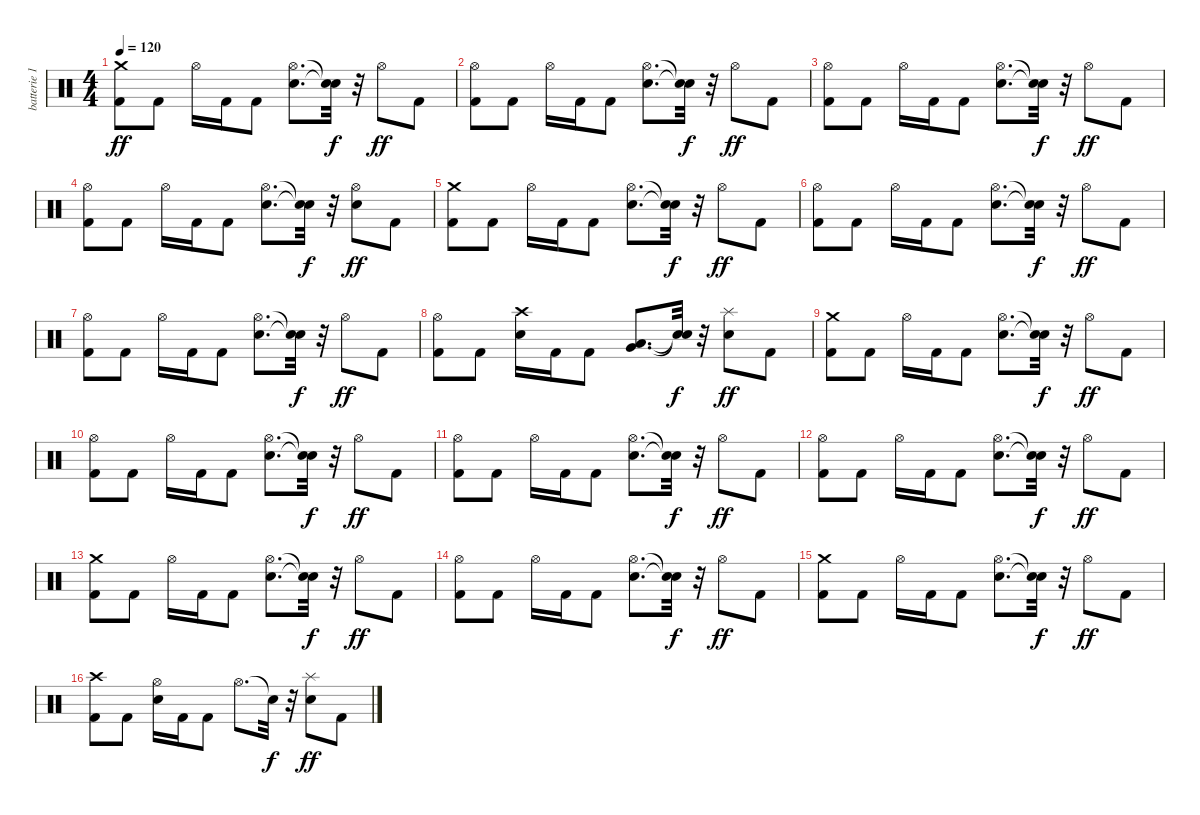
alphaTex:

\track ("batterie 1" "batterie 1") {instrument percussion}
\staff {score}
\articulation defaults
\ts (4 4)
\tempo 120
\clef neutral
\ks c
("Kick (hit) 2" "Crash medium (hit)").8{dy ff} "Kick (hit) 2".8 "Hi-Hat (open)".16 "Kick (hit) 2".16 "Kick (hit) 2".8 ("Electric Snare (hit)" "Hi-Hat (open)").8{d} ("Snare (hit)"{t} "Snare (hit)"{t}).32{dy f} r.32 "Hi-Hat (open)".8{dy ff} "Kick (hit) 2".8 |
("Kick (hit) 2" "Hi-Hat (open)").8 "Kick (hit) 2".8 "Hi-Hat (open)".16 "Kick (hit) 2".16 "Kick (hit) 2".8 ("Electric Snare (hit)" "Hi-Hat (open)").8{d} ("Snare (hit)"{t} "Snare (hit)"{t}).32{dy f} r.32 "Hi-Hat (open)".8{dy ff} "Kick (hit) 2".8 |
("Kick (hit) 2" "Hi-Hat (open)").8 "Kick (hit) 2".8 "Hi-Hat (open)".16 "Kick (hit) 2".16 "Kick (hit) 2".8 ("Electric Snare (hit)" "Hi-Hat (open)").8{d} ("Snare (hit)"{t} "Snare (hit)"{t}).32{dy f} r.32 "Hi-Hat (open)".8{dy ff} "Kick (hit) 2".8 |
("Kick (hit) 2" "Hi-Hat (open)").8 "Kick (hit) 2".8 "Hi-Hat (open)".16 "Kick (hit) 2".16 "Kick (hit) 2".8 ("Electric Snare (hit)" "Hi-Hat (open)").8{d} ("Snare (hit)"{t} "Snare (hit)"{t}).32{dy f} r.32 ("Electric Snare (hit)" "Hi-Hat (open)").8{dy ff} "Kick (hit) 2".8 |
("Kick (hit) 2" "Crash medium (hit)").8 "Kick (hit) 2".8 "Hi-Hat (open)".16 "Kick (hit) 2".16 "Kick (hit) 2".8 ("Electric Snare (hit)" "Hi-Hat (open)").8{d} ("Snare (hit)"{t} "Snare (hit)"{t}).32{dy f} r.32 "Hi-Hat (open)".8{dy ff} "Kick (hit) 2".8 |
("Kick (hit) 2" "Hi-Hat (open)").8 "Kick (hit) 2".8 "Hi-Hat (open)".16 "Kick (hit) 2".16 "Kick (hit) 2".8 ("Electric Snare (hit)" "Hi-Hat (open)").8{d} ("Snare (hit)"{t} "Snare (hit)"{t}).32{dy f} r.32 "Hi-Hat (open)".8{dy ff} "Kick (hit) 2".8 |
("Kick (hit) 2" "Hi-Hat (open)").8 "Kick (hit) 2".8 "Hi-Hat (open)".16 "Kick (hit) 2".16 "Kick (hit) 2".8 ("Electric Snare (hit)" "Hi-Hat (open)").8{d} ("Snare (hit)"{t} "Snare (hit)"{t}).32{dy f} r.32 "Hi-Hat (open)".8{dy ff} "Kick (hit) 2".8 |
("Kick (hit) 2" "Hi-Hat (open)").8 "Kick (hit) 2".8 ("Electric Snare (hit)" "Crash high (hit)").16 "Kick (hit) 2".16 "Kick (hit) 2".8 ("Low Floor Tom (hit)" "Very Low Tom (hit)").8{d} ("Snare (hit)"{t} "Snare (hit)"{t}).32{dy f} r.32 ("Electric Snare (hit)" "Splash (hit)").8{dy ff} "Kick (hit) 2".8 |
("Kick (hit) 2" "Crash medium (hit)").8 "Kick (hit) 2".8 "Hi-Hat (open)".16 "Kick (hit) 2".16 "Kick (hit) 2".8 ("Electric Snare (hit)" "Hi-Hat (open)").8{d} ("Snare (hit)"{t} "Snare (hit)"{t}).32{dy f} r.32 "Hi-Hat (open)".8{dy ff} "Kick (hit) 2".8 |
("Kick (hit) 2" "Hi-Hat (open)").8 "Kick (hit) 2".8 "Hi-Hat (open)".16 "Kick (hit) 2".16 "Kick (hit) 2".8 ("Electric Snare (hit)" "Hi-Hat (open)").8{d} ("Snare (hit)"{t} "Snare (hit)"{t}).32{dy f} r.32 "Hi-Hat (open)".8{dy ff} "Kick (hit) 2".8 |
("Kick (hit) 2" "Hi-Hat (open)").8 "Kick (hit) 2".8 "Hi-Hat (open)".16 "Kick (hit) 2".16 "Kick (hit) 2".8 ("Electric Snare (hit)" "Hi-Hat (open)").8{d} ("Snare (hit)"{t} "Snare (hit)"{t}).32{dy f} r.32 "Hi-Hat (open)".8{dy ff} "Kick (hit) 2".8 |
("Kick (hit) 2" "Hi-Hat (open)").8 "Kick (hit) 2".8 "Hi-Hat (open)".16 "Kick (hit) 2".16 "Kick (hit) 2".8 ("Electric Snare (hit)" "Hi-Hat (open)").8{d} ("Snare (hit)"{t} "Snare (hit)"{t}).32{dy f} r.32 "Hi-Hat (open)".8{dy ff} "Kick (hit) 2".8 |
("Kick (hit) 2" "Crash medium (hit)").8 "Kick (hit) 2".8 "Hi-Hat (open)".16 "Kick (hit) 2".16 "Kick (hit) 2".8 ("Electric Snare (hit)" "Hi-Hat (open)").8{d} ("Snare (hit)"{t} "Snare (hit)"{t}).32{dy f} r.32 "Hi-Hat (open)".8{dy ff} "Kick (hit) 2".8 |
("Kick (hit) 2" "Hi-Hat (open)").8 "Kick (hit) 2".8 "Hi-Hat (open)".16 "Kick (hit) 2".16 "Kick (hit) 2".8 ("Electric Snare (hit)" "Hi-Hat (open)").8{d} ("Snare (hit)"{t} "Snare (hit)"{t}).32{dy f} r.32 "Hi-Hat (open)".8{dy ff} "Kick (hit) 2".8 |
("Kick (hit) 2" "Crash medium (hit)").8 "Kick (hit) 2".8 "Hi-Hat (open)".16 "Kick (hit) 2".16 "Kick (hit) 2".8 ("Electric Snare (hit)" "Hi-Hat (open)").8{d} ("Snare (hit)"{t} "Snare (hit)"{t}).32{dy f} r.32 "Hi-Hat (open)".8{dy ff} "Kick (hit) 2".8 |
("Kick (hit) 2" "Crash high (hit)").8 "Kick (hit) 2".8 ("Electric Snare (hit)" "Hi-Hat (open)").16 "Kick (hit) 2".16 "Kick (hit) 2".8 "Hi-Hat (open)".8{d} "Snare (hit)"{t}.32{dy f} r.32 ("Electric Snare (hit)" "Splash (hit)").8{dy ff} "Kick (hit) 2".8
